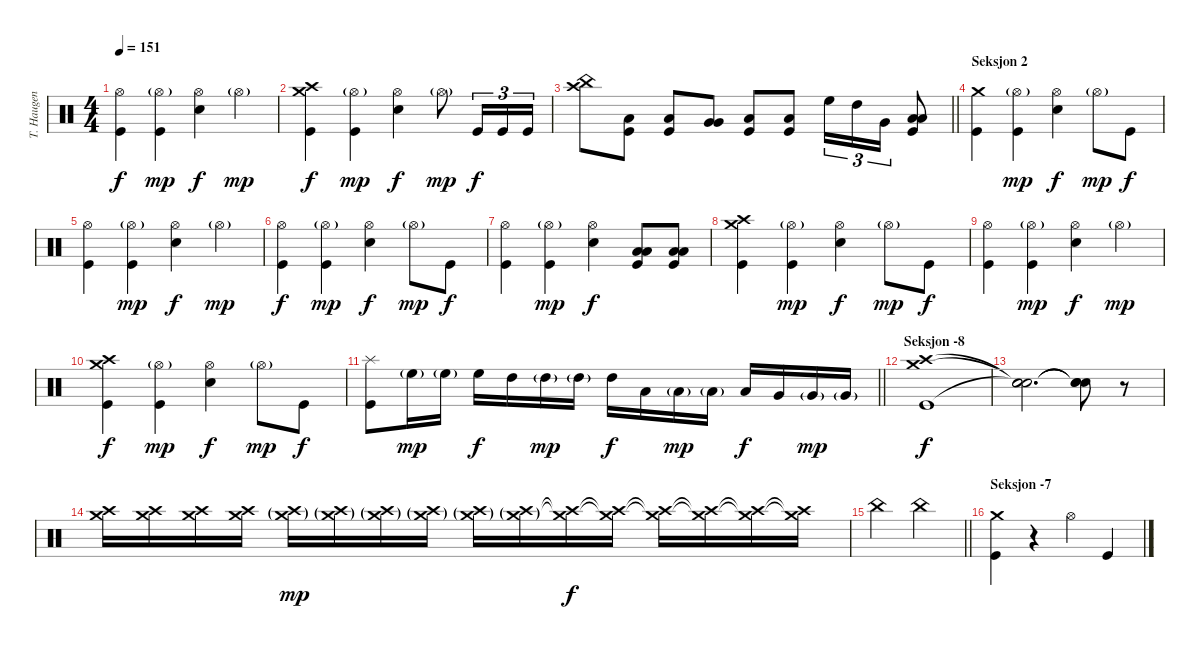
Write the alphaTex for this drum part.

\track ("T. Haugen" "T. Haugen") {instrument percussion}
\staff {score}
\articulation defaults
\ts (4 4)
\tempo 151
\clef neutral
\ks c
("Hi-Hat (open)" "Kick (hit)").4{dy f} ("Hi-Hat (open)"{g} "Kick (hit)").4{dy mp} ("Hi-Hat (open)" "Electric Snare (hit)").4{dy f} "Hi-Hat (open)"{g}.4{dy mp} |
("Crash medium (hit)" "Crash high (hit)" "Kick (hit)").4{dy f} ("Hi-Hat (open)"{g} "Kick (hit)").4{dy mp} ("Hi-Hat (open)" "Electric Snare (hit)").4{dy f} "Hi-Hat (open)"{g}.8{dy mp} "Kick (hit)".16{tu (3 2) dy f} "Kick (hit)".16{tu (3 2)} "Kick (hit)".16{tu (3 2)} |
\barLineRight lightlight
("China (hit)" "Crash high (hit)").8 ("Low Floor Tom (hit)" "Kick (hit)").8 ("Low Floor Tom (hit)" "Kick (hit)").8 ("Very Low Tom (hit)" "Very Low Tom (hit)").8 ("Low Floor Tom (hit)" "Kick (hit)").8 ("Low Floor Tom (hit)" "Kick (hit)").8 "High Floor Tom (hit)".16{tu (3 2)} "High Tom (hit)".16{tu (3 2)} "Very Low Tom (hit)".16{tu (3 2)} ("Low Floor Tom (hit)" "Low Floor Tom (hit)" "Kick (hit)").8 |
\section ("" "Seksjon 2")
("Crash medium (hit)" "Kick (hit)").4 ("Hi-Hat (open)"{g} "Kick (hit)").4{dy mp} ("Hi-Hat (open)" "Electric Snare (hit)").4{dy f} "Hi-Hat (open)"{g}.8{dy mp} "Kick (hit)".8{dy f} |
("Hi-Hat (open)" "Kick (hit)").4 ("Hi-Hat (open)"{g} "Kick (hit)").4{dy mp} ("Hi-Hat (open)" "Electric Snare (hit)").4{dy f} "Hi-Hat (open)"{g}.4{dy mp} |
("Hi-Hat (open)" "Kick (hit)").4{dy f} ("Hi-Hat (open)"{g} "Kick (hit)").4{dy mp} ("Hi-Hat (open)" "Electric Snare (hit)").4{dy f} "Hi-Hat (open)"{g}.8{dy mp} "Kick (hit)".8{dy f} |
("Hi-Hat (open)" "Kick (hit)").4 ("Hi-Hat (open)"{g} "Kick (hit)").4{dy mp} ("Hi-Hat (open)" "Electric Snare (hit)").4{dy f} ("Low Floor Tom (hit)" "Low Floor Tom (hit)" "Kick (hit)").8 ("Low Floor Tom (hit)" "Low Floor Tom (hit)" "Kick (hit)").8 |
("Crash medium (hit)" "Crash high (hit)" "Kick (hit)").4 ("Hi-Hat (open)"{g} "Kick (hit)").4{dy mp} ("Hi-Hat (open)" "Electric Snare (hit)").4{dy f} "Hi-Hat (open)"{g}.8{dy mp} "Kick (hit)".8{dy f} |
("Hi-Hat (open)" "Kick (hit)").4 ("Hi-Hat (open)"{g} "Kick (hit)").4{dy mp} ("Hi-Hat (open)" "Electric Snare (hit)").4{dy f} "Hi-Hat (open)"{g}.4{dy mp} |
("Crash medium (hit)" "Crash high (hit)" "Kick (hit)").4{dy f} ("Hi-Hat (open)"{g} "Kick (hit)").4{dy mp} ("Hi-Hat (open)" "Electric Snare (hit)").4{dy f} "Hi-Hat (open)"{g}.8{dy mp} "Kick (hit)".8{dy f} |
\barLineRight lightlight
("Splash (hit)" "Kick (hit)").8 "High Floor Tom (hit)"{g}.16{dy mp} "High Floor Tom (hit)"{g}.16 "High Floor Tom (hit)".16{dy f} "High Tom (hit)".16 "High Tom (hit)"{g}.16{dy mp} "High Tom (hit)"{g}.16 "High Tom (hit)".16{dy f} "Low Tom (hit)".16 "Low Tom (hit)"{g}.16{dy mp} "Low Tom (hit)"{g}.16 "Low Tom (hit)".16{dy f} "Very Low Tom (hit)".16 "Very Low Tom (hit)"{g}.16{dy mp} "Very Low Tom (hit)"{g}.16 |
\section ("" "Seksjon -8")
("Crash high (hit)" "Crash medium (hit)" "Kick (hit)").1{dy f} |
("Snare (hit)"{t} "Snare (hit)"{t} "Snare (hit)"{t}).2{d} ("Snare (hit)"{t} "Snare (hit)"{t} "Snare (hit)"{t}).8 r.8{volume 0} |
("Crash high (hit)" "Crash medium (hit)").16{volume 16} ("Crash high (hit)" "Crash medium (hit)").16 ("Crash high (hit)" "Crash medium (hit)").16 ("Crash high (hit)" "Crash medium (hit)").16 ("Crash high (hit)"{g} "Crash medium (hit)"{g}).16{dy mp} ("Crash high (hit)"{g} "Crash medium (hit)"{g}).16 ("Crash high (hit)"{g} "Crash medium (hit)"{g}).16 ("Crash high (hit)"{g} "Crash medium (hit)"{g}).16 ("Crash high (hit)"{g} "Crash medium (hit)"{g}).16 ("Crash high (hit)"{g} "Crash medium (hit)"{g}).16 ("Crash high (hit)"{t} "Crash medium (hit)"{t}).16{dy f} ("Crash high (hit)"{t} "Crash medium (hit)"{t}).16 ("Crash high (hit)"{t} "Crash medium (hit)"{t}).16 ("Crash high (hit)"{t} "Crash medium (hit)"{t}).16 ("Crash high (hit)"{t} "Crash medium (hit)"{t}).16 ("Crash high (hit)"{t} "Crash medium (hit)"{t}).16 |
\barLineRight lightlight "China (hit)".2{volume 16} "China (hit)".2
|
\section ("" "Seksjon -7")
("Crash medium (hit)" "Kick (hit)").4 r.4 "Hi-Hat (open)".4 "Kick (hit)".4
